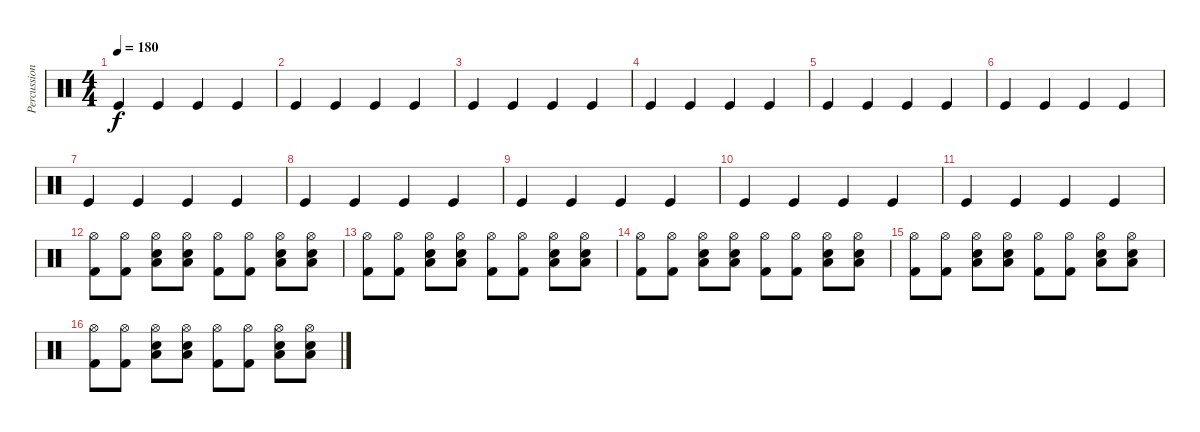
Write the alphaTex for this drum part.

\track ("Percussioni" "Percussion") {instrument percussion}
\staff {score}
\articulation defaults
\ts (4 4)
\tempo 180
\clef neutral
\ks c "Kick (hit)".4{dy f} "Kick (hit)".4 "Kick (hit)".4 "Kick (hit)".4
|
"Kick (hit)".4 "Kick (hit)".4 "Kick (hit)".4 "Kick (hit)".4 |
"Kick (hit)".4 "Kick (hit)".4 "Kick (hit)".4 "Kick (hit)".4 |
"Kick (hit)".4 "Kick (hit)".4 "Kick (hit)".4 "Kick (hit)".4 |
"Kick (hit)".4 "Kick (hit)".4 "Kick (hit)".4 "Kick (hit)".4 |
"Kick (hit)".4 "Kick (hit)".4 "Kick (hit)".4 "Kick (hit)".4 |
"Kick (hit)".4 "Kick (hit)".4 "Kick (hit)".4 "Kick (hit)".4 |
"Kick (hit)".4 "Kick (hit)".4 "Kick (hit)".4 "Kick (hit)".4 |
"Kick (hit)".4 "Kick (hit)".4 "Kick (hit)".4 "Kick (hit)".4 |
"Kick (hit)".4 "Kick (hit)".4 "Kick (hit)".4 "Kick (hit)".4 |
"Kick (hit)".4 "Kick (hit)".4 "Kick (hit)".4 "Kick (hit)".4 |
("Hi-Hat (open)" "Kick (hit) 2").8 ("Hi-Hat (open)" "Kick (hit) 2").8 ("Hi-Hat (open)" "Electric Snare (hit)" "Low Floor Tom (hit)").8 ("Hi-Hat (open)" "Electric Snare (hit)" "Low Floor Tom (hit)").8 ("Hi-Hat (open)" "Kick (hit) 2").8 ("Hi-Hat (open)" "Kick (hit) 2").8 ("Hi-Hat (open)" "Electric Snare (hit)" "Low Floor Tom (hit)").8 ("Hi-Hat (open)" "Electric Snare (hit)" "Low Floor Tom (hit)").8 |
("Hi-Hat (open)" "Kick (hit) 2").8 ("Hi-Hat (open)" "Kick (hit) 2").8 ("Hi-Hat (open)" "Electric Snare (hit)" "Low Floor Tom (hit)").8 ("Hi-Hat (open)" "Electric Snare (hit)" "Low Floor Tom (hit)").8 ("Hi-Hat (open)" "Kick (hit) 2").8 ("Hi-Hat (open)" "Kick (hit) 2").8 ("Hi-Hat (open)" "Electric Snare (hit)" "Low Floor Tom (hit)").8 ("Hi-Hat (open)" "Electric Snare (hit)" "Low Floor Tom (hit)").8 |
("Hi-Hat (open)" "Kick (hit) 2").8 ("Hi-Hat (open)" "Kick (hit) 2").8 ("Hi-Hat (open)" "Electric Snare (hit)" "Low Floor Tom (hit)").8 ("Hi-Hat (open)" "Electric Snare (hit)" "Low Floor Tom (hit)").8 ("Hi-Hat (open)" "Kick (hit) 2").8 ("Hi-Hat (open)" "Kick (hit) 2").8 ("Hi-Hat (open)" "Electric Snare (hit)" "Low Floor Tom (hit)").8 ("Hi-Hat (open)" "Electric Snare (hit)" "Low Floor Tom (hit)").8 |
("Hi-Hat (open)" "Kick (hit) 2").8 ("Hi-Hat (open)" "Kick (hit) 2").8 ("Hi-Hat (open)" "Electric Snare (hit)" "Low Floor Tom (hit)").8 ("Hi-Hat (open)" "Electric Snare (hit)" "Low Floor Tom (hit)").8 ("Hi-Hat (open)" "Kick (hit) 2").8 ("Hi-Hat (open)" "Kick (hit) 2").8 ("Hi-Hat (open)" "Electric Snare (hit)" "Low Floor Tom (hit)").8 ("Hi-Hat (open)" "Electric Snare (hit)" "Low Floor Tom (hit)").8 |
("Hi-Hat (open)" "Kick (hit) 2").8 ("Hi-Hat (open)" "Kick (hit) 2").8 ("Hi-Hat (open)" "Electric Snare (hit)" "Low Floor Tom (hit)").8 ("Hi-Hat (open)" "Electric Snare (hit)" "Low Floor Tom (hit)").8 ("Hi-Hat (open)" "Kick (hit) 2").8 ("Hi-Hat (open)" "Kick (hit) 2").8 ("Hi-Hat (open)" "Electric Snare (hit)" "Low Floor Tom (hit)").8 ("Hi-Hat (open)" "Electric Snare (hit)" "Low Floor Tom (hit)").8
